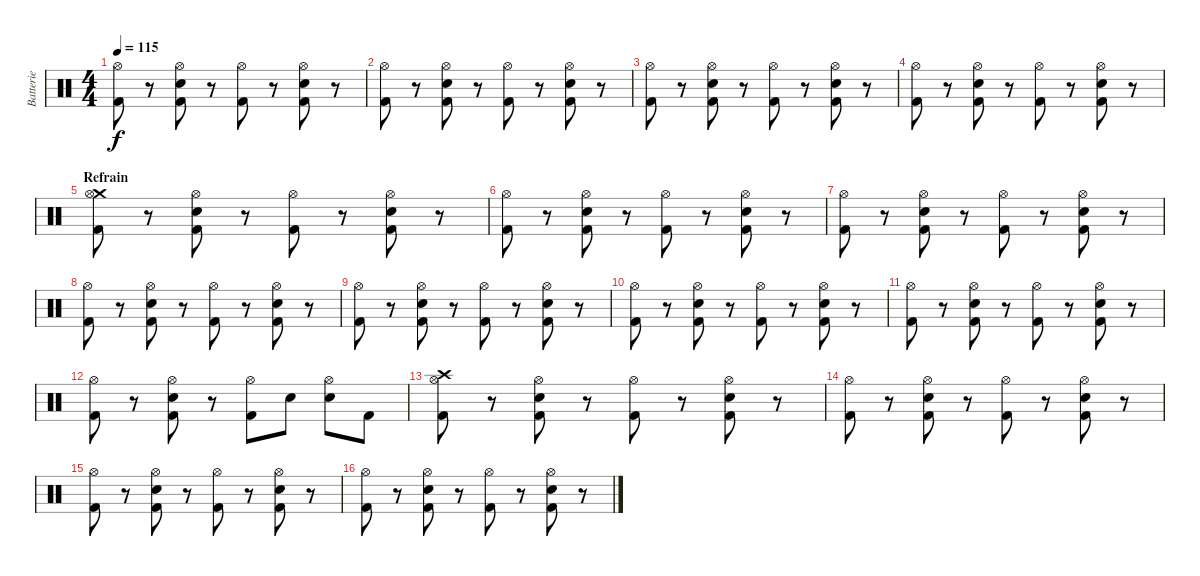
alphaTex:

\track ("Batterie" "Batterie") {instrument percussion}
\staff {score}
\articulation defaults
\ts (4 4)
\tempo 115
\clef neutral
\ks c
("Hi-Hat (open)" "Kick (hit) 2").8{dy f} r.8 ("Electric Snare (hit)" "Hi-Hat (open)" "Kick (hit) 2").8 r.8 ("Hi-Hat (open)" "Kick (hit) 2").8 r.8 ("Electric Snare (hit)" "Hi-Hat (open)" "Kick (hit) 2").8 r.8 |
("Hi-Hat (open)" "Kick (hit) 2").8 r.8 ("Electric Snare (hit)" "Hi-Hat (open)" "Kick (hit) 2").8 r.8 ("Hi-Hat (open)" "Kick (hit) 2").8 r.8 ("Electric Snare (hit)" "Hi-Hat (open)" "Kick (hit) 2").8 r.8 |
("Hi-Hat (open)" "Kick (hit) 2").8 r.8 ("Electric Snare (hit)" "Hi-Hat (open)" "Kick (hit) 2").8 r.8 ("Hi-Hat (open)" "Kick (hit) 2").8 r.8 ("Electric Snare (hit)" "Hi-Hat (open)" "Kick (hit) 2").8 r.8 |
("Hi-Hat (open)" "Kick (hit) 2").8 r.8 ("Electric Snare (hit)" "Hi-Hat (open)" "Kick (hit) 2").8 r.8 ("Hi-Hat (open)" "Kick (hit) 2").8 r.8 ("Electric Snare (hit)" "Hi-Hat (open)" "Kick (hit) 2").8 r.8 |
\section ("" "Refrain")
("Crash medium (hit)" "Hi-Hat (open)" "Kick (hit) 2").8 r.8 ("Electric Snare (hit)" "Hi-Hat (open)" "Kick (hit) 2").8 r.8 ("Hi-Hat (open)" "Kick (hit) 2").8 r.8 ("Electric Snare (hit)" "Hi-Hat (open)" "Kick (hit) 2").8 r.8 |
("Hi-Hat (open)" "Kick (hit) 2").8 r.8 ("Electric Snare (hit)" "Hi-Hat (open)" "Kick (hit) 2").8 r.8 ("Hi-Hat (open)" "Kick (hit) 2").8 r.8 ("Electric Snare (hit)" "Hi-Hat (open)" "Kick (hit) 2").8 r.8 |
("Hi-Hat (open)" "Kick (hit) 2").8 r.8 ("Electric Snare (hit)" "Hi-Hat (open)" "Kick (hit) 2").8 r.8 ("Hi-Hat (open)" "Kick (hit) 2").8 r.8 ("Electric Snare (hit)" "Hi-Hat (open)" "Kick (hit) 2").8 r.8 |
("Hi-Hat (open)" "Kick (hit) 2").8 r.8 ("Electric Snare (hit)" "Hi-Hat (open)" "Kick (hit) 2").8 r.8 ("Hi-Hat (open)" "Kick (hit) 2").8 r.8 ("Electric Snare (hit)" "Hi-Hat (open)" "Kick (hit) 2").8 r.8 |
("Hi-Hat (open)" "Kick (hit) 2").8 r.8 ("Electric Snare (hit)" "Hi-Hat (open)" "Kick (hit) 2").8 r.8 ("Hi-Hat (open)" "Kick (hit) 2").8 r.8 ("Electric Snare (hit)" "Hi-Hat (open)" "Kick (hit) 2").8 r.8 |
("Hi-Hat (open)" "Kick (hit) 2").8 r.8 ("Electric Snare (hit)" "Hi-Hat (open)" "Kick (hit) 2").8 r.8 ("Hi-Hat (open)" "Kick (hit) 2").8 r.8 ("Electric Snare (hit)" "Hi-Hat (open)" "Kick (hit) 2").8 r.8 |
("Hi-Hat (open)" "Kick (hit) 2").8 r.8 ("Electric Snare (hit)" "Hi-Hat (open)" "Kick (hit) 2").8 r.8 ("Hi-Hat (open)" "Kick (hit) 2").8 r.8 ("Electric Snare (hit)" "Hi-Hat (open)" "Kick (hit) 2").8 r.8 |
("Hi-Hat (open)" "Kick (hit) 2").8 r.8 ("Electric Snare (hit)" "Hi-Hat (open)" "Kick (hit) 2").8 r.8 ("Hi-Hat (open)" "Kick (hit) 2").8 "Electric Snare (hit)".8 ("Electric Snare (hit)" "Hi-Hat (open)").8 "Kick (hit) 2".8 |
("Crash high (hit)" "Hi-Hat (open)" "Kick (hit) 2").8 r.8 ("Electric Snare (hit)" "Hi-Hat (open)" "Kick (hit) 2").8 r.8 ("Hi-Hat (open)" "Kick (hit) 2").8 r.8 ("Electric Snare (hit)" "Hi-Hat (open)" "Kick (hit) 2").8 r.8 |
("Hi-Hat (open)" "Kick (hit) 2").8 r.8 ("Electric Snare (hit)" "Hi-Hat (open)" "Kick (hit) 2").8 r.8 ("Hi-Hat (open)" "Kick (hit) 2").8 r.8 ("Electric Snare (hit)" "Hi-Hat (open)" "Kick (hit) 2").8 r.8 |
("Hi-Hat (open)" "Kick (hit) 2").8 r.8 ("Electric Snare (hit)" "Hi-Hat (open)" "Kick (hit) 2").8 r.8 ("Hi-Hat (open)" "Kick (hit) 2").8 r.8 ("Electric Snare (hit)" "Hi-Hat (open)" "Kick (hit) 2").8 r.8 |
("Hi-Hat (open)" "Kick (hit) 2").8 r.8 ("Electric Snare (hit)" "Hi-Hat (open)" "Kick (hit) 2").8 r.8 ("Hi-Hat (open)" "Kick (hit) 2").8 r.8 ("Electric Snare (hit)" "Hi-Hat (open)" "Kick (hit) 2").8 r.8
